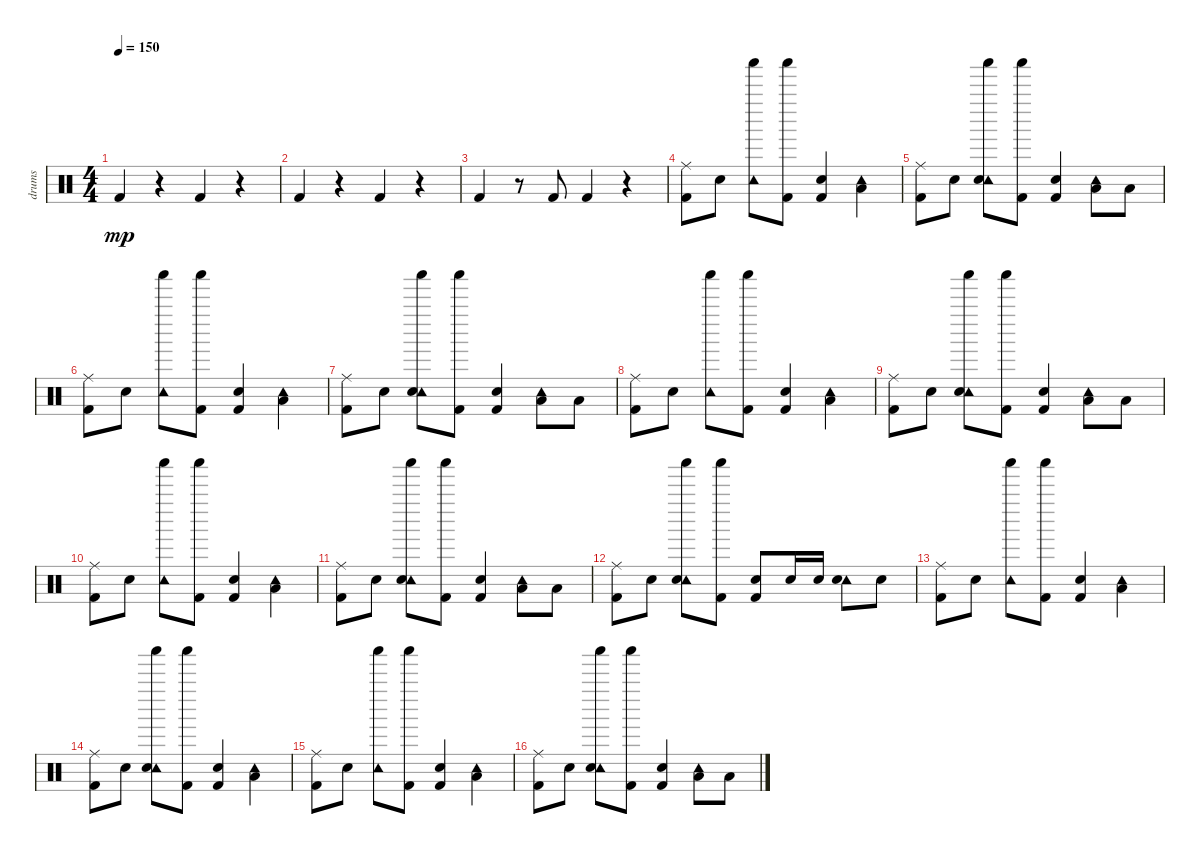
\track ("drums" "drums") {instrument percussion}
\staff {score}
\articulation defaults
\ts (4 4)
\tempo 150
\clef neutral
\ks c "Kick (hit) 2".4{dy mp}
r.4 "Kick (hit) 2".4 r.4 |
"Kick (hit) 2".4 r.4 "Kick (hit) 2".4 r.4 |
"Kick (hit) 2".4 r.8 "Kick (hit) 2".8 "Kick (hit) 2".4 r.4 |
("Ride (middle)" "Kick (hit) 2").8 "Snare (hit) 2".8 ("Shaker (hit)" "Tambourine (hit)").8 ("Shaker (hit)" "Kick (hit) 2").8 ("Kick (hit) 2" "Snare (hit) 2").4 ("Tambourine (hit)" "Low Tom (hit)").4 |
("Ride (middle)" "Kick (hit) 2").8 "Snare (hit) 2".8 ("Shaker (hit)" "Tambourine (hit)" "Snare (hit) 2").8 ("Shaker (hit)" "Kick (hit) 2").8 ("Kick (hit) 2" "Snare (hit) 2").4 ("Tambourine (hit)" "Low Tom (hit)").8 "Low Tom (hit)".8 |
("Ride (middle)" "Kick (hit) 2").8 "Snare (hit) 2".8 ("Shaker (hit)" "Tambourine (hit)").8 ("Shaker (hit)" "Kick (hit) 2").8 ("Kick (hit) 2" "Snare (hit) 2").4 ("Tambourine (hit)" "Low Tom (hit)").4 |
("Ride (middle)" "Kick (hit) 2").8 "Snare (hit) 2".8 ("Shaker (hit)" "Tambourine (hit)" "Snare (hit) 2").8 ("Shaker (hit)" "Kick (hit) 2").8 ("Kick (hit) 2" "Snare (hit) 2").4 ("Tambourine (hit)" "Low Tom (hit)").8 "Low Tom (hit)".8 |
("Ride (middle)" "Kick (hit) 2").8 "Snare (hit) 2".8 ("Shaker (hit)" "Tambourine (hit)").8 ("Shaker (hit)" "Kick (hit) 2").8 ("Kick (hit) 2" "Snare (hit) 2").4 ("Tambourine (hit)" "Low Tom (hit)").4 |
("Ride (middle)" "Kick (hit) 2").8 "Snare (hit) 2".8 ("Shaker (hit)" "Tambourine (hit)" "Snare (hit) 2").8 ("Shaker (hit)" "Kick (hit) 2").8 ("Kick (hit) 2" "Snare (hit) 2").4 ("Tambourine (hit)" "Low Tom (hit)").8 "Low Tom (hit)".8 |
("Ride (middle)" "Kick (hit) 2").8 "Snare (hit) 2".8 ("Shaker (hit)" "Tambourine (hit)").8 ("Shaker (hit)" "Kick (hit) 2").8 ("Kick (hit) 2" "Snare (hit) 2").4 ("Tambourine (hit)" "Low Tom (hit)").4 |
("Ride (middle)" "Kick (hit) 2").8 "Snare (hit) 2".8 ("Shaker (hit)" "Tambourine (hit)" "Snare (hit) 2").8 ("Shaker (hit)" "Kick (hit) 2").8 ("Kick (hit) 2" "Snare (hit) 2").4 ("Tambourine (hit)" "Low Tom (hit)").8 "Low Tom (hit)".8 |
("Ride (middle)" "Kick (hit) 2").8 "Snare (hit) 2".8 ("Shaker (hit)" "Tambourine (hit)" "Snare (hit) 2").8 ("Shaker (hit)" "Kick (hit) 2").8 ("Kick (hit) 2" "Snare (hit) 2").8 "Snare (hit) 2".16 "Snare (hit) 2".16 ("Tambourine (hit)" "Snare (hit) 2").8 "Snare (hit) 2".8 |
("Ride (middle)" "Kick (hit) 2").8 "Snare (hit) 2".8 ("Shaker (hit)" "Tambourine (hit)").8 ("Shaker (hit)" "Kick (hit) 2").8 ("Kick (hit) 2" "Snare (hit) 2").4 ("Tambourine (hit)" "Low Tom (hit)").4 |
("Ride (middle)" "Kick (hit) 2").8 "Snare (hit) 2".8 ("Shaker (hit)" "Tambourine (hit)" "Snare (hit) 2").8 ("Shaker (hit)" "Kick (hit) 2").8 ("Kick (hit) 2" "Snare (hit) 2").4 ("Tambourine (hit)" "Low Tom (hit)").4 |
("Ride (middle)" "Kick (hit) 2").8 "Snare (hit) 2".8 ("Shaker (hit)" "Tambourine (hit)").8 ("Shaker (hit)" "Kick (hit) 2").8 ("Kick (hit) 2" "Snare (hit) 2").4 ("Tambourine (hit)" "Low Tom (hit)").4 |
("Ride (middle)" "Kick (hit) 2").8 "Snare (hit) 2".8 ("Shaker (hit)" "Tambourine (hit)" "Snare (hit) 2").8 ("Shaker (hit)" "Kick (hit) 2").8 ("Kick (hit) 2" "Snare (hit) 2").4 ("Tambourine (hit)" "Low Tom (hit)").8 "Low Tom (hit)".8
